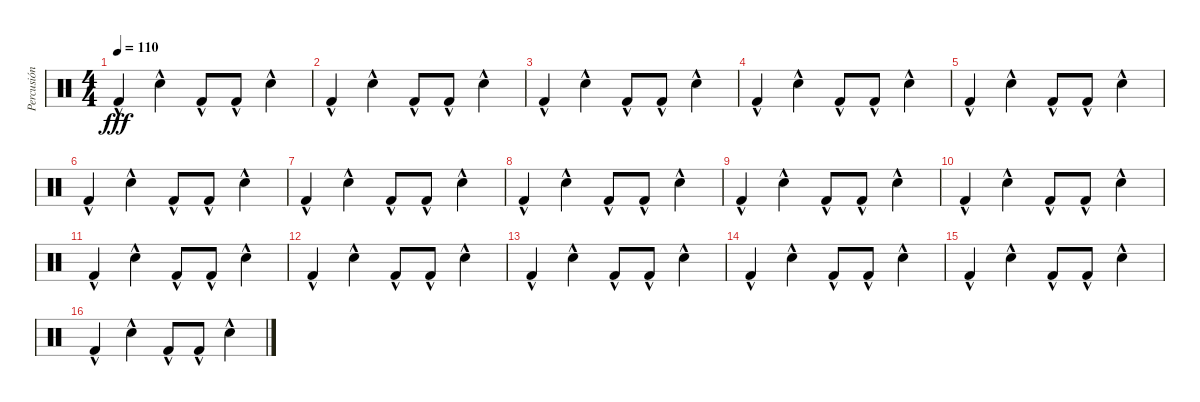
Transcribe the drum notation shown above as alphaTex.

\track ("Percusión" "Percusión") {instrument percussion}
\staff {score}
\articulation defaults
\ts (4 4)
\tempo 110
\clef neutral
\ks c "Kick (hit) 2"{hac}.4{dy fff} "Electric Snare (hit)"{hac}.4 "Kick (hit) 2"{hac}.8 "Kick (hit) 2"{hac}.8 "Electric Snare (hit)"{hac}.4
|
"Kick (hit) 2"{hac}.4 "Electric Snare (hit)"{hac}.4 "Kick (hit) 2"{hac}.8 "Kick (hit) 2"{hac}.8 "Electric Snare (hit)"{hac}.4 |
"Kick (hit) 2"{hac}.4 "Electric Snare (hit)"{hac}.4 "Kick (hit) 2"{hac}.8 "Kick (hit) 2"{hac}.8 "Electric Snare (hit)"{hac}.4 |
"Kick (hit) 2"{hac}.4 "Electric Snare (hit)"{hac}.4 "Kick (hit) 2"{hac}.8 "Kick (hit) 2"{hac}.8 "Electric Snare (hit)"{hac}.4 |
"Kick (hit) 2"{hac}.4 "Electric Snare (hit)"{hac}.4 "Kick (hit) 2"{hac}.8 "Kick (hit) 2"{hac}.8 "Electric Snare (hit)"{hac}.4 |
"Kick (hit) 2"{hac}.4 "Electric Snare (hit)"{hac}.4 "Kick (hit) 2"{hac}.8 "Kick (hit) 2"{hac}.8 "Electric Snare (hit)"{hac}.4 |
"Kick (hit) 2"{hac}.4 "Electric Snare (hit)"{hac}.4 "Kick (hit) 2"{hac}.8 "Kick (hit) 2"{hac}.8 "Electric Snare (hit)"{hac}.4 |
"Kick (hit) 2"{hac}.4 "Electric Snare (hit)"{hac}.4 "Kick (hit) 2"{hac}.8 "Kick (hit) 2"{hac}.8 "Electric Snare (hit)"{hac}.4 |
"Kick (hit) 2"{hac}.4 "Electric Snare (hit)"{hac}.4 "Kick (hit) 2"{hac}.8 "Kick (hit) 2"{hac}.8 "Electric Snare (hit)"{hac}.4 |
"Kick (hit) 2"{hac}.4 "Electric Snare (hit)"{hac}.4 "Kick (hit) 2"{hac}.8 "Kick (hit) 2"{hac}.8 "Electric Snare (hit)"{hac}.4 |
"Kick (hit) 2"{hac}.4 "Electric Snare (hit)"{hac}.4 "Kick (hit) 2"{hac}.8 "Kick (hit) 2"{hac}.8 "Electric Snare (hit)"{hac}.4 |
"Kick (hit) 2"{hac}.4 "Electric Snare (hit)"{hac}.4 "Kick (hit) 2"{hac}.8 "Kick (hit) 2"{hac}.8 "Electric Snare (hit)"{hac}.4 |
"Kick (hit) 2"{hac}.4 "Electric Snare (hit)"{hac}.4 "Kick (hit) 2"{hac}.8 "Kick (hit) 2"{hac}.8 "Electric Snare (hit)"{hac}.4 |
"Kick (hit) 2"{hac}.4 "Electric Snare (hit)"{hac}.4 "Kick (hit) 2"{hac}.8 "Kick (hit) 2"{hac}.8 "Electric Snare (hit)"{hac}.4 |
"Kick (hit) 2"{hac}.4 "Electric Snare (hit)"{hac}.4 "Kick (hit) 2"{hac}.8 "Kick (hit) 2"{hac}.8 "Electric Snare (hit)"{hac}.4 |
"Kick (hit) 2"{hac}.4 "Electric Snare (hit)"{hac}.4 "Kick (hit) 2"{hac}.8 "Kick (hit) 2"{hac}.8 "Electric Snare (hit)"{hac}.4
